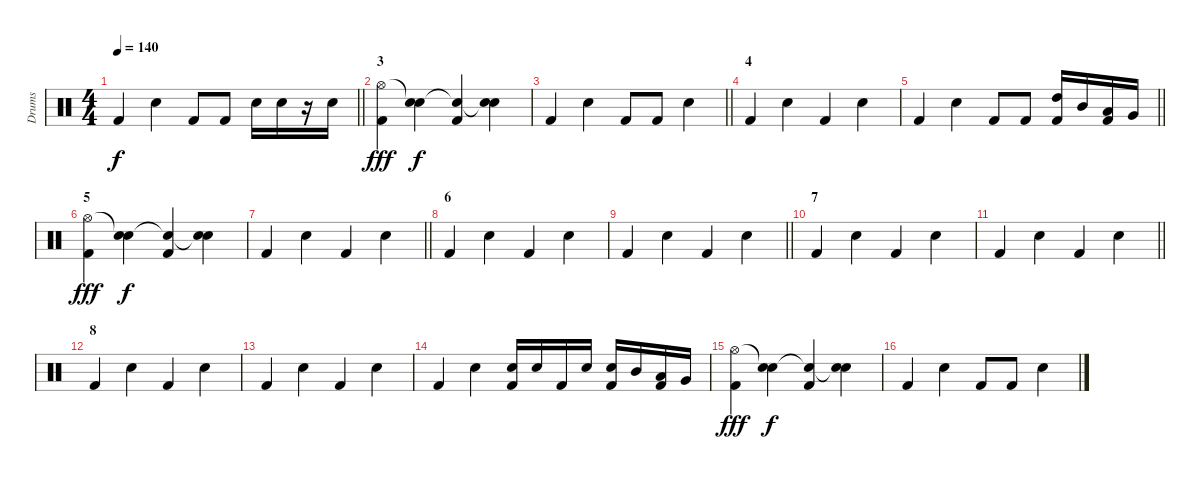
\track ("Drums" "Drums") {instrument percussion}
\staff {score}
\articulation defaults
\ts (4 4)
\tempo 140
\clef neutral
\barLineRight lightlight
\ks c "Kick (hit) 2".4{dy f} "Snare (hit) 2".4 "Kick (hit) 2".8 "Kick (hit) 2".8 "Snare (hit) 2".16 "Snare (hit) 2".16
r.16 "Snare (hit) 2".16 |
\section ("" "3")
("Hi-Hat (open)" "Kick (hit) 2").4{dy fff} ("Snare (hit)"{t} "Snare (hit) 2").4{dy f} ("Snare (hit)"{t} "Kick (hit) 2").4 ("Snare (hit)"{t} "Snare (hit) 2").4 |
\barLineRight lightlight "Kick (hit) 2".4 "Snare (hit) 2".4 "Kick (hit) 2".8 "Kick (hit) 2".8 "Snare (hit) 2".4
|
\section ("" "4")
"Kick (hit) 2".4 "Snare (hit) 2".4 "Kick (hit) 2".4 "Snare (hit) 2".4 |
\barLineRight lightlight "Kick (hit) 2".4 "Snare (hit) 2".4 "Kick (hit) 2".8 "Kick (hit) 2".8
("High Tom (hit)" "Kick (hit) 2").16 "Mid Tom (hit)".16 ("Low Tom (hit)" "Kick (hit) 2").16 "Very Low Tom (hit)".16 |
\section ("" "5")
("Hi-Hat (open)" "Kick (hit) 2").4{dy fff} ("Snare (hit)"{t} "Snare (hit) 2").4{dy f} ("Snare (hit)"{t} "Kick (hit) 2").4 ("Snare (hit)"{t} "Snare (hit) 2").4 |
\barLineRight lightlight "Kick (hit) 2".4 "Snare (hit) 2".4 "Kick (hit) 2".4 "Snare (hit) 2".4
|
\section ("" "6")
"Kick (hit) 2".4 "Snare (hit) 2".4 "Kick (hit) 2".4 "Snare (hit) 2".4 |
\barLineRight lightlight "Kick (hit) 2".4 "Snare (hit) 2".4 "Kick (hit) 2".4 "Snare (hit) 2".4
|
\section ("" "7")
"Kick (hit) 2".4 "Snare (hit) 2".4 "Kick (hit) 2".4 "Snare (hit) 2".4 |
\barLineRight lightlight "Kick (hit) 2".4 "Snare (hit) 2".4 "Kick (hit) 2".4 "Snare (hit) 2".4
|
\section ("" "8")
"Kick (hit) 2".4 "Snare (hit) 2".4 "Kick (hit) 2".4 "Snare (hit) 2".4 |
"Kick (hit) 2".4 "Snare (hit) 2".4 "Kick (hit) 2".4 "Snare (hit) 2".4 |
"Kick (hit) 2".4 "Snare (hit) 2".4 ("Snare (hit) 2" "Kick (hit) 2").16 "Snare (hit) 2".16 "Kick (hit) 2".16 "Snare (hit) 2".16 ("Snare (hit) 2" "Kick (hit) 2").16 "Mid Tom (hit)".16 ("Low Tom (hit)" "Kick (hit) 2").16 "Very Low Tom (hit)".16 |
("Hi-Hat (open)" "Kick (hit) 2").4{dy fff} ("Snare (hit)"{t} "Snare (hit) 2").4{dy f} ("Snare (hit)"{t} "Kick (hit) 2").4 ("Snare (hit)"{t} "Snare (hit) 2").4 |
"Kick (hit) 2".4 "Snare (hit) 2".4 "Kick (hit) 2".8 "Kick (hit) 2".8 "Snare (hit) 2".4
